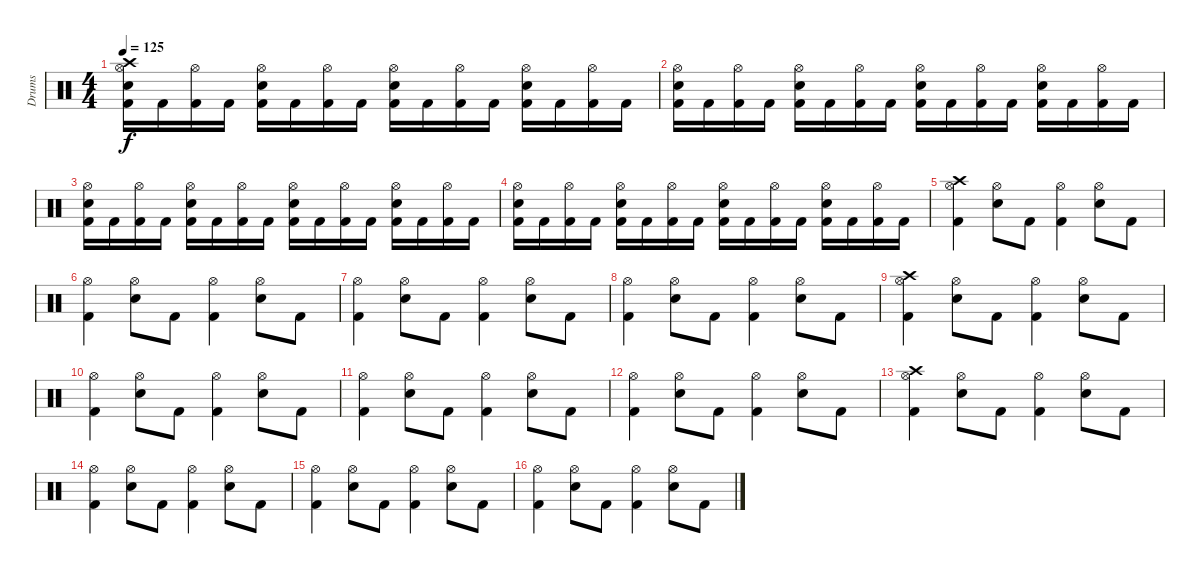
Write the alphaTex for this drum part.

\track ("Drums" "Drums") {instrument percussion}
\staff {score}
\articulation defaults
\ts (4 4)
\tempo 125
\clef neutral
\ks c
("Crash high (hit)" "Hi-Hat (open)" "Snare (hit) 2" "Kick (hit) 2").16{dy f} "Kick (hit) 2".16 ("Hi-Hat (open)" "Kick (hit) 2").16 "Kick (hit) 2".16 ("Hi-Hat (open)" "Snare (hit) 2" "Kick (hit) 2").16 "Kick (hit) 2".16 ("Hi-Hat (open)" "Kick (hit) 2").16 "Kick (hit) 2".16 ("Hi-Hat (open)" "Snare (hit) 2" "Kick (hit) 2").16 "Kick (hit) 2".16 ("Hi-Hat (open)" "Kick (hit) 2").16 "Kick (hit) 2".16 ("Hi-Hat (open)" "Snare (hit) 2" "Kick (hit) 2").16 "Kick (hit) 2".16 ("Hi-Hat (open)" "Kick (hit) 2").16 "Kick (hit) 2".16 |
("Hi-Hat (open)" "Snare (hit) 2" "Kick (hit) 2").16 "Kick (hit) 2".16 ("Hi-Hat (open)" "Kick (hit) 2").16 "Kick (hit) 2".16 ("Hi-Hat (open)" "Snare (hit) 2" "Kick (hit) 2").16 "Kick (hit) 2".16 ("Hi-Hat (open)" "Kick (hit) 2").16 "Kick (hit) 2".16 ("Hi-Hat (open)" "Snare (hit) 2" "Kick (hit) 2").16 "Kick (hit) 2".16 ("Hi-Hat (open)" "Kick (hit) 2").16 "Kick (hit) 2".16 ("Hi-Hat (open)" "Snare (hit) 2" "Kick (hit) 2").16 "Kick (hit) 2".16 ("Hi-Hat (open)" "Kick (hit) 2").16 "Kick (hit) 2".16 |
("Hi-Hat (open)" "Snare (hit) 2" "Kick (hit) 2").16 "Kick (hit) 2".16 ("Hi-Hat (open)" "Kick (hit) 2").16 "Kick (hit) 2".16 ("Hi-Hat (open)" "Snare (hit) 2" "Kick (hit) 2").16 "Kick (hit) 2".16 ("Hi-Hat (open)" "Kick (hit) 2").16 "Kick (hit) 2".16 ("Hi-Hat (open)" "Snare (hit) 2" "Kick (hit) 2").16 "Kick (hit) 2".16 ("Hi-Hat (open)" "Kick (hit) 2").16 "Kick (hit) 2".16 ("Hi-Hat (open)" "Snare (hit) 2" "Kick (hit) 2").16 "Kick (hit) 2".16 ("Hi-Hat (open)" "Kick (hit) 2").16 "Kick (hit) 2".16 |
("Hi-Hat (open)" "Snare (hit) 2" "Kick (hit) 2").16 "Kick (hit) 2".16 ("Hi-Hat (open)" "Kick (hit) 2").16 "Kick (hit) 2".16 ("Hi-Hat (open)" "Snare (hit) 2" "Kick (hit) 2").16 "Kick (hit) 2".16 ("Hi-Hat (open)" "Kick (hit) 2").16 "Kick (hit) 2".16 ("Hi-Hat (open)" "Snare (hit) 2" "Kick (hit) 2").16 "Kick (hit) 2".16 ("Hi-Hat (open)" "Kick (hit) 2").16 "Kick (hit) 2".16 ("Hi-Hat (open)" "Snare (hit) 2" "Kick (hit) 2").16 "Kick (hit) 2".16 ("Hi-Hat (open)" "Kick (hit) 2").16 "Kick (hit) 2".16 |
("Crash high (hit)" "Hi-Hat (open)" "Kick (hit) 2").4 ("Hi-Hat (open)" "Snare (hit) 2").8 "Kick (hit) 2".8 ("Hi-Hat (open)" "Kick (hit) 2").4 ("Hi-Hat (open)" "Snare (hit) 2").8 "Kick (hit) 2".8 |
("Hi-Hat (open)" "Kick (hit) 2").4 ("Hi-Hat (open)" "Snare (hit) 2").8 "Kick (hit) 2".8 ("Hi-Hat (open)" "Kick (hit) 2").4 ("Hi-Hat (open)" "Snare (hit) 2").8 "Kick (hit) 2".8 |
("Hi-Hat (open)" "Kick (hit) 2").4 ("Hi-Hat (open)" "Snare (hit) 2").8 "Kick (hit) 2".8 ("Hi-Hat (open)" "Kick (hit) 2").4 ("Hi-Hat (open)" "Snare (hit) 2").8 "Kick (hit) 2".8 |
("Hi-Hat (open)" "Kick (hit) 2").4 ("Hi-Hat (open)" "Snare (hit) 2").8 "Kick (hit) 2".8 ("Hi-Hat (open)" "Kick (hit) 2").4 ("Hi-Hat (open)" "Snare (hit) 2").8 "Kick (hit) 2".8 |
("Crash high (hit)" "Hi-Hat (open)" "Kick (hit) 2").4 ("Hi-Hat (open)" "Snare (hit) 2").8 "Kick (hit) 2".8 ("Hi-Hat (open)" "Kick (hit) 2").4 ("Hi-Hat (open)" "Snare (hit) 2").8 "Kick (hit) 2".8 |
("Hi-Hat (open)" "Kick (hit) 2").4 ("Hi-Hat (open)" "Snare (hit) 2").8 "Kick (hit) 2".8 ("Hi-Hat (open)" "Kick (hit) 2").4 ("Hi-Hat (open)" "Snare (hit) 2").8 "Kick (hit) 2".8 |
("Hi-Hat (open)" "Kick (hit) 2").4 ("Hi-Hat (open)" "Snare (hit) 2").8 "Kick (hit) 2".8 ("Hi-Hat (open)" "Kick (hit) 2").4 ("Hi-Hat (open)" "Snare (hit) 2").8 "Kick (hit) 2".8 |
("Hi-Hat (open)" "Kick (hit) 2").4 ("Hi-Hat (open)" "Snare (hit) 2").8 "Kick (hit) 2".8 ("Hi-Hat (open)" "Kick (hit) 2").4 ("Hi-Hat (open)" "Snare (hit) 2").8 "Kick (hit) 2".8 |
("Crash high (hit)" "Hi-Hat (open)" "Kick (hit) 2").4 ("Hi-Hat (open)" "Snare (hit) 2").8 "Kick (hit) 2".8 ("Hi-Hat (open)" "Kick (hit) 2").4 ("Hi-Hat (open)" "Snare (hit) 2").8 "Kick (hit) 2".8 |
("Hi-Hat (open)" "Kick (hit) 2").4 ("Hi-Hat (open)" "Snare (hit) 2").8 "Kick (hit) 2".8 ("Hi-Hat (open)" "Kick (hit) 2").4 ("Hi-Hat (open)" "Snare (hit) 2").8 "Kick (hit) 2".8 |
("Hi-Hat (open)" "Kick (hit) 2").4 ("Hi-Hat (open)" "Snare (hit) 2").8 "Kick (hit) 2".8 ("Hi-Hat (open)" "Kick (hit) 2").4 ("Hi-Hat (open)" "Snare (hit) 2").8 "Kick (hit) 2".8 |
("Hi-Hat (open)" "Kick (hit) 2").4 ("Hi-Hat (open)" "Snare (hit) 2").8 "Kick (hit) 2".8 ("Hi-Hat (open)" "Kick (hit) 2").4 ("Hi-Hat (open)" "Snare (hit) 2").8 "Kick (hit) 2".8
